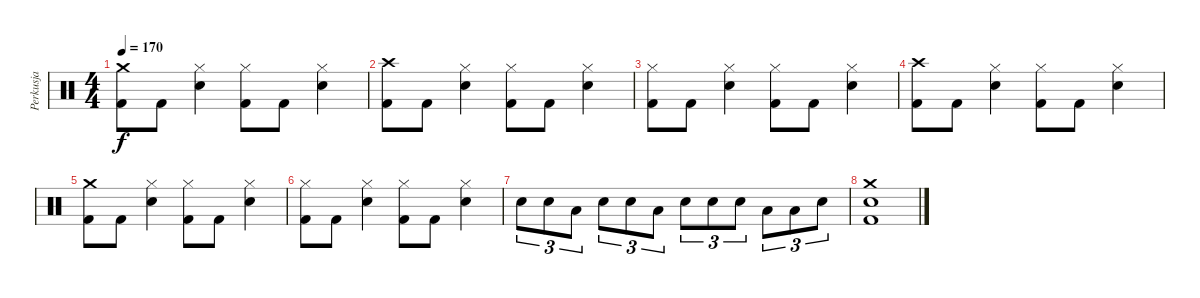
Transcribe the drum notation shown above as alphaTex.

\track ("Perkusja" "Perkusja") {instrument percussion}
\staff {score}
\articulation defaults
\ts (4 4)
\tempo 170
\clef neutral
\ks c
("Crash medium (hit)" "Kick (hit) 2").8{dy f} "Kick (hit) 2".8 ("Hi-Hat (closed)" "Electric Snare (hit)").4 ("Hi-Hat (closed)" "Kick (hit) 2").8 "Kick (hit) 2".8 ("Hi-Hat (closed)" "Electric Snare (hit)").4 |
("Crash high (hit)" "Kick (hit) 2").8 "Kick (hit) 2".8 ("Hi-Hat (closed)" "Electric Snare (hit)").4 ("Hi-Hat (closed)" "Kick (hit) 2").8 "Kick (hit) 2".8 ("Hi-Hat (closed)" "Electric Snare (hit)").4 |
("Hi-Hat (closed)" "Kick (hit) 2").8 "Kick (hit) 2".8 ("Hi-Hat (closed)" "Electric Snare (hit)").4 ("Hi-Hat (closed)" "Kick (hit) 2").8 "Kick (hit) 2".8 ("Hi-Hat (closed)" "Electric Snare (hit)").4 |
("Crash high (hit)" "Kick (hit) 2").8 "Kick (hit) 2".8 ("Hi-Hat (closed)" "Electric Snare (hit)").4 ("Hi-Hat (closed)" "Kick (hit) 2").8 "Kick (hit) 2".8 ("Hi-Hat (closed)" "Electric Snare (hit)").4 |
("Crash medium (hit)" "Kick (hit) 2").8 "Kick (hit) 2".8 ("Hi-Hat (closed)" "Electric Snare (hit)").4 ("Hi-Hat (closed)" "Kick (hit) 2").8 "Kick (hit) 2".8 ("Hi-Hat (closed)" "Electric Snare (hit)").4 |
("Hi-Hat (closed)" "Kick (hit) 2").8 "Kick (hit) 2".8 ("Hi-Hat (closed)" "Electric Snare (hit)").4 ("Hi-Hat (closed)" "Kick (hit) 2").8 "Kick (hit) 2".8 ("Hi-Hat (closed)" "Electric Snare (hit)").4 |
"Electric Snare (hit)".8{tu (3 2)} "Electric Snare (hit)".8{tu (3 2)} "Low Floor Tom (hit)".8{tu (3 2)} "Electric Snare (hit)".8{tu (3 2)} "Electric Snare (hit)".8{tu (3 2)} "Low Floor Tom (hit)".8{tu (3 2)} "Electric Snare (hit)".8{tu (3 2)} "Electric Snare (hit)".8{tu (3 2)} "Electric Snare (hit)".8{tu (3 2)} "Low Tom (hit)".8{tu (3 2)} "Low Tom (hit)".8{tu (3 2)} "Electric Snare (hit)".8{tu (3 2)} |
("Crash medium (hit)" "Electric Snare (hit)" "Kick (hit) 2").1
